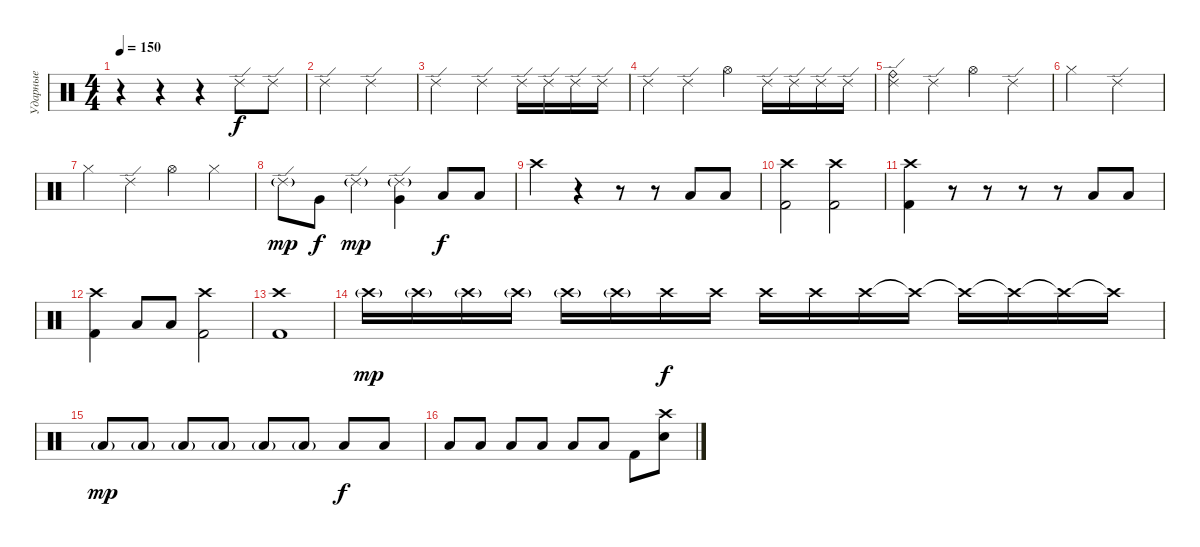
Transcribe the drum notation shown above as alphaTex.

\track ("Ударные" "Ударные") {instrument percussion}
\staff {score}
\articulation defaults
\ts (4 4)
\tempo 150
\clef neutral
\ks c
r.4{dy f} r.4 r.4 "Ride (edge) 2".8 "Ride (edge) 2".8 |
"Ride (edge) 2".2 "Ride (edge) 2".2 |
"Ride (edge) 2".2 "Ride (edge) 2".4 "Ride (edge) 2".16 "Ride (edge) 2".16 "Ride (edge) 2".16 "Ride (edge) 2".16 |
"Ride (edge) 2".4 "Ride (edge) 2".4 "Hi-Hat (open)".4 "Ride (edge) 2".16 "Ride (edge) 2".16 "Ride (edge) 2".16 "Ride (edge) 2".16 |
("Ride (edge) 2" "Ride (bell)").4 "Ride (edge) 2".4 "Hi-Hat (open)".4 "Ride (edge) 2".4 |
"Hi-Hat (closed)".2 "Ride (edge) 2".2 |
"Hi-Hat (closed)".4 "Ride (edge) 2".4 "Hi-Hat (open)".4 "Hi-Hat (closed)".4 |
"Ride (edge) 2"{g}.8{dy mp} "Very Low Tom (hit)".8{dy f} "Ride (edge) 2"{g}.4{dy mp} ("Ride (edge) 2"{g} "Very Low Tom (hit)").4 "Low Floor Tom (hit)".8{dy f} "Low Floor Tom (hit)".8 |
"Crash high (hit)".4 r.4 r.8 r.8 "Low Floor Tom (hit)".8 "Low Floor Tom (hit)".8 |
("Crash high (hit)" "Kick (hit) 2").2 ("Crash high (hit)" "Kick (hit) 2").2 |
("Crash high (hit)" "Kick (hit) 2").4 r.8 r.8 r.8 r.8 "Low Floor Tom (hit)".8 "Low Floor Tom (hit)".8 |
("Crash high (hit)" "Kick (hit) 2").4 "Low Floor Tom (hit)".8 "Low Floor Tom (hit)".8 ("Crash high (hit)" "Kick (hit) 2").2 |
("Crash high (hit)" "Kick (hit) 2").1 |
"Crash high (hit)"{g}.16{dy mp} "Crash high (hit)"{g}.16 "Crash high (hit)"{g}.16 "Crash high (hit)"{g}.16 "Crash high (hit)"{g}.16 "Crash high (hit)"{g}.16 "Crash high (hit)".16{dy f} "Crash high (hit)".16 "Crash high (hit)".16 "Crash high (hit)".16 "Crash high (hit)".16 "Crash high (hit)"{t}.16 "Crash high (hit)"{t}.16 "Crash high (hit)"{t}.16 "Crash high (hit)"{t}.16 "Crash high (hit)"{t}.16 |
"Low Floor Tom (hit)"{g}.8{dy mp} "Low Floor Tom (hit)"{g}.8 "Low Floor Tom (hit)"{g}.8 "Low Floor Tom (hit)"{g}.8 "Low Floor Tom (hit)"{g}.8 "Low Floor Tom (hit)"{g}.8 "Low Floor Tom (hit)".8{dy f} "Low Floor Tom (hit)".8 |
"Low Floor Tom (hit)".8 "Low Floor Tom (hit)".8 "Low Floor Tom (hit)".8 "Low Floor Tom (hit)".8 "Low Floor Tom (hit)".8 "Low Floor Tom (hit)".8 "Kick (hit) 2".8 ("Crash high (hit)" "Electric Snare (hit)").8
